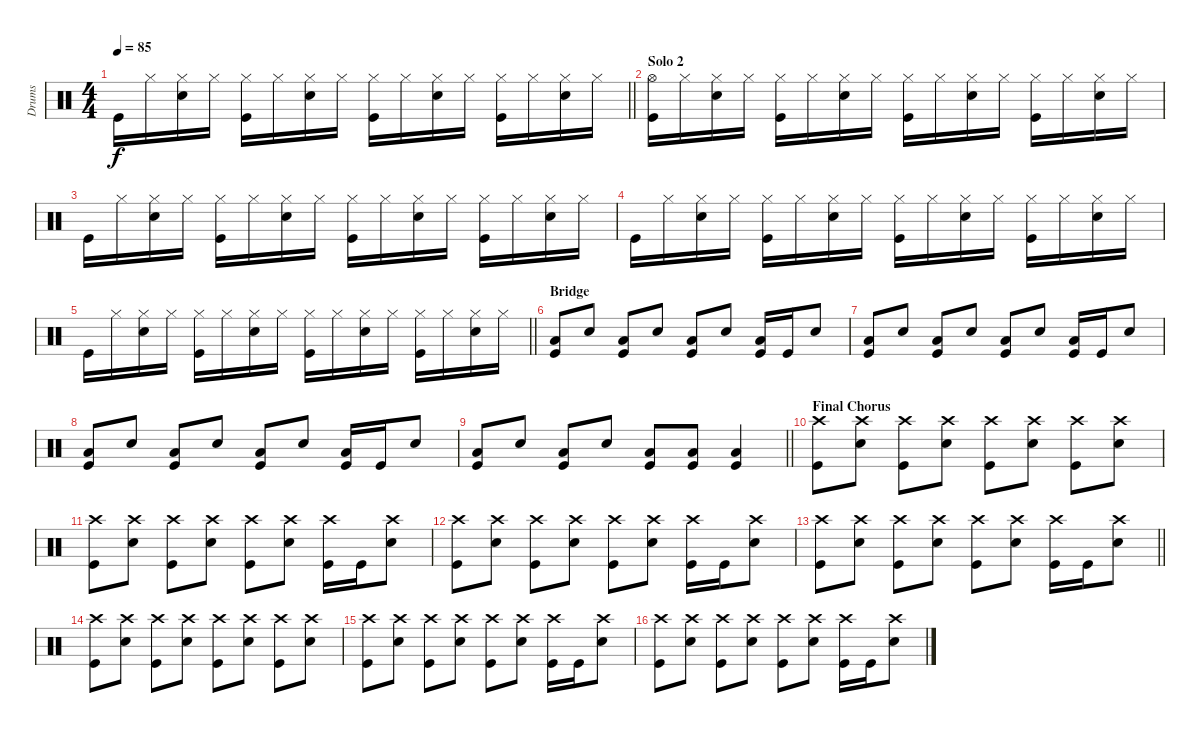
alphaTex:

\track ("Drums" "Drums") {instrument percussion}
\staff {score}
\articulation defaults
\ts (4 4)
\tempo 85
\clef neutral
\barLineRight lightlight
\ks c "Kick (hit)".16{dy f} "Hi-Hat (closed)".16
("Hi-Hat (closed)" "Electric Snare (hit)").16 "Hi-Hat (closed)".16 ("Hi-Hat (closed)" "Kick (hit)").16 "Hi-Hat (closed)".16 ("Hi-Hat (closed)" "Electric Snare (hit)").16 "Hi-Hat (closed)".16 ("Hi-Hat (closed)" "Kick (hit)").16 "Hi-Hat (closed)".16 ("Hi-Hat (closed)" "Electric Snare (hit)").16 "Hi-Hat (closed)".16 ("Hi-Hat (closed)" "Kick (hit)").16 "Hi-Hat (closed)".16 ("Hi-Hat (closed)" "Electric Snare (hit)").16 "Hi-Hat (closed)".16 |
\section ("" "Solo 2")
("Kick (hit)" "Hi-Hat (open)").16 "Hi-Hat (closed)".16 ("Hi-Hat (closed)" "Electric Snare (hit)").16 "Hi-Hat (closed)".16 ("Hi-Hat (closed)" "Kick (hit)").16 "Hi-Hat (closed)".16 ("Hi-Hat (closed)" "Electric Snare (hit)").16 "Hi-Hat (closed)".16 ("Hi-Hat (closed)" "Kick (hit)").16 "Hi-Hat (closed)".16 ("Hi-Hat (closed)" "Electric Snare (hit)").16 "Hi-Hat (closed)".16 ("Hi-Hat (closed)" "Kick (hit)").16 "Hi-Hat (closed)".16 ("Hi-Hat (closed)" "Electric Snare (hit)").16 "Hi-Hat (closed)".16 |
"Kick (hit)".16 "Hi-Hat (closed)".16 ("Hi-Hat (closed)" "Electric Snare (hit)").16 "Hi-Hat (closed)".16 ("Hi-Hat (closed)" "Kick (hit)").16 "Hi-Hat (closed)".16 ("Hi-Hat (closed)" "Electric Snare (hit)").16 "Hi-Hat (closed)".16 ("Hi-Hat (closed)" "Kick (hit)").16 "Hi-Hat (closed)".16 ("Hi-Hat (closed)" "Electric Snare (hit)").16 "Hi-Hat (closed)".16 ("Hi-Hat (closed)" "Kick (hit)").16 "Hi-Hat (closed)".16 ("Hi-Hat (closed)" "Electric Snare (hit)").16 "Hi-Hat (closed)".16 |
"Kick (hit)".16 "Hi-Hat (closed)".16 ("Hi-Hat (closed)" "Electric Snare (hit)").16 "Hi-Hat (closed)".16 ("Hi-Hat (closed)" "Kick (hit)").16 "Hi-Hat (closed)".16 ("Hi-Hat (closed)" "Electric Snare (hit)").16 "Hi-Hat (closed)".16 ("Hi-Hat (closed)" "Kick (hit)").16 "Hi-Hat (closed)".16 ("Hi-Hat (closed)" "Electric Snare (hit)").16 "Hi-Hat (closed)".16 ("Hi-Hat (closed)" "Kick (hit)").16 "Hi-Hat (closed)".16 ("Hi-Hat (closed)" "Electric Snare (hit)").16 "Hi-Hat (closed)".16 |
\barLineRight lightlight "Kick (hit)".16 "Hi-Hat (closed)".16
("Hi-Hat (closed)" "Electric Snare (hit)").16 "Hi-Hat (closed)".16 ("Hi-Hat (closed)" "Kick (hit)").16 "Hi-Hat (closed)".16 ("Hi-Hat (closed)" "Electric Snare (hit)").16 "Hi-Hat (closed)".16 ("Hi-Hat (closed)" "Kick (hit)").16 "Hi-Hat (closed)".16 ("Hi-Hat (closed)" "Electric Snare (hit)").16 "Hi-Hat (closed)".16 ("Hi-Hat (closed)" "Kick (hit)").16 "Hi-Hat (closed)".16 ("Hi-Hat (closed)" "Electric Snare (hit)").16 "Hi-Hat (closed)".16 |
\section ("" "Bridge")
("Kick (hit)" "Low Floor Tom (hit)").8 "Electric Snare (hit)".8 ("Kick (hit)" "Low Floor Tom (hit)").8 "Electric Snare (hit)".8 ("Kick (hit)" "Low Floor Tom (hit)").8 "Electric Snare (hit)".8 ("Kick (hit)" "Low Floor Tom (hit)").16 "Kick (hit)".16 "Electric Snare (hit)".8 |
("Kick (hit)" "Low Floor Tom (hit)").8 "Electric Snare (hit)".8 ("Kick (hit)" "Low Floor Tom (hit)").8 "Electric Snare (hit)".8 ("Kick (hit)" "Low Floor Tom (hit)").8 "Electric Snare (hit)".8 ("Kick (hit)" "Low Floor Tom (hit)").16 "Kick (hit)".16 "Electric Snare (hit)".8 |
("Kick (hit)" "Low Floor Tom (hit)").8 "Electric Snare (hit)".8 ("Kick (hit)" "Low Floor Tom (hit)").8 "Electric Snare (hit)".8 ("Kick (hit)" "Low Floor Tom (hit)").8 "Electric Snare (hit)".8 ("Kick (hit)" "Low Floor Tom (hit)").16 "Kick (hit)".16 "Electric Snare (hit)".8 |
\barLineRight lightlight
("Kick (hit)" "Low Floor Tom (hit)").8 "Electric Snare (hit)".8 ("Kick (hit)" "Low Floor Tom (hit)").8 "Electric Snare (hit)".8 ("Kick (hit)" "Low Floor Tom (hit)").8 ("Kick (hit)" "Low Floor Tom (hit)").8 ("Kick (hit)" "Low Floor Tom (hit)").4 |
\section ("" "Final Chorus")
("Kick (hit)" "Crash high (hit)").8 ("Electric Snare (hit)" "Crash high (hit)").8 ("Kick (hit)" "Crash high (hit)").8 ("Electric Snare (hit)" "Crash high (hit)").8 ("Kick (hit)" "Crash high (hit)").8 ("Electric Snare (hit)" "Crash high (hit)").8 ("Kick (hit)" "Crash high (hit)").8 ("Electric Snare (hit)" "Crash high (hit)").8 |
("Kick (hit)" "Crash high (hit)").8 ("Electric Snare (hit)" "Crash high (hit)").8 ("Kick (hit)" "Crash high (hit)").8 ("Electric Snare (hit)" "Crash high (hit)").8 ("Kick (hit)" "Crash high (hit)").8 ("Electric Snare (hit)" "Crash high (hit)").8 ("Kick (hit)" "Crash high (hit)").16 "Kick (hit)".16 ("Electric Snare (hit)" "Crash high (hit)").8 |
("Kick (hit)" "Crash high (hit)").8 ("Electric Snare (hit)" "Crash high (hit)").8 ("Kick (hit)" "Crash high (hit)").8 ("Electric Snare (hit)" "Crash high (hit)").8 ("Kick (hit)" "Crash high (hit)").8 ("Electric Snare (hit)" "Crash high (hit)").8 ("Kick (hit)" "Crash high (hit)").16 "Kick (hit)".16 ("Electric Snare (hit)" "Crash high (hit)").8 |
\barLineRight lightlight
("Kick (hit)" "Crash high (hit)").8 ("Electric Snare (hit)" "Crash high (hit)").8 ("Kick (hit)" "Crash high (hit)").8 ("Electric Snare (hit)" "Crash high (hit)").8 ("Kick (hit)" "Crash high (hit)").8 ("Electric Snare (hit)" "Crash high (hit)").8 ("Kick (hit)" "Crash high (hit)").16 "Kick (hit)".16 ("Electric Snare (hit)" "Crash high (hit)").8 |
("Kick (hit)" "Crash high (hit)").8 ("Electric Snare (hit)" "Crash high (hit)").8 ("Kick (hit)" "Crash high (hit)").8 ("Electric Snare (hit)" "Crash high (hit)").8 ("Kick (hit)" "Crash high (hit)").8 ("Electric Snare (hit)" "Crash high (hit)").8 ("Kick (hit)" "Crash high (hit)").8 ("Electric Snare (hit)" "Crash high (hit)").8 |
("Kick (hit)" "Crash high (hit)").8 ("Electric Snare (hit)" "Crash high (hit)").8 ("Kick (hit)" "Crash high (hit)").8 ("Electric Snare (hit)" "Crash high (hit)").8 ("Kick (hit)" "Crash high (hit)").8 ("Electric Snare (hit)" "Crash high (hit)").8 ("Kick (hit)" "Crash high (hit)").16 "Kick (hit)".16 ("Electric Snare (hit)" "Crash high (hit)").8 |
("Kick (hit)" "Crash high (hit)").8 ("Electric Snare (hit)" "Crash high (hit)").8 ("Kick (hit)" "Crash high (hit)").8 ("Electric Snare (hit)" "Crash high (hit)").8 ("Kick (hit)" "Crash high (hit)").8 ("Electric Snare (hit)" "Crash high (hit)").8 ("Kick (hit)" "Crash high (hit)").16 "Kick (hit)".16 ("Electric Snare (hit)" "Crash high (hit)").8
